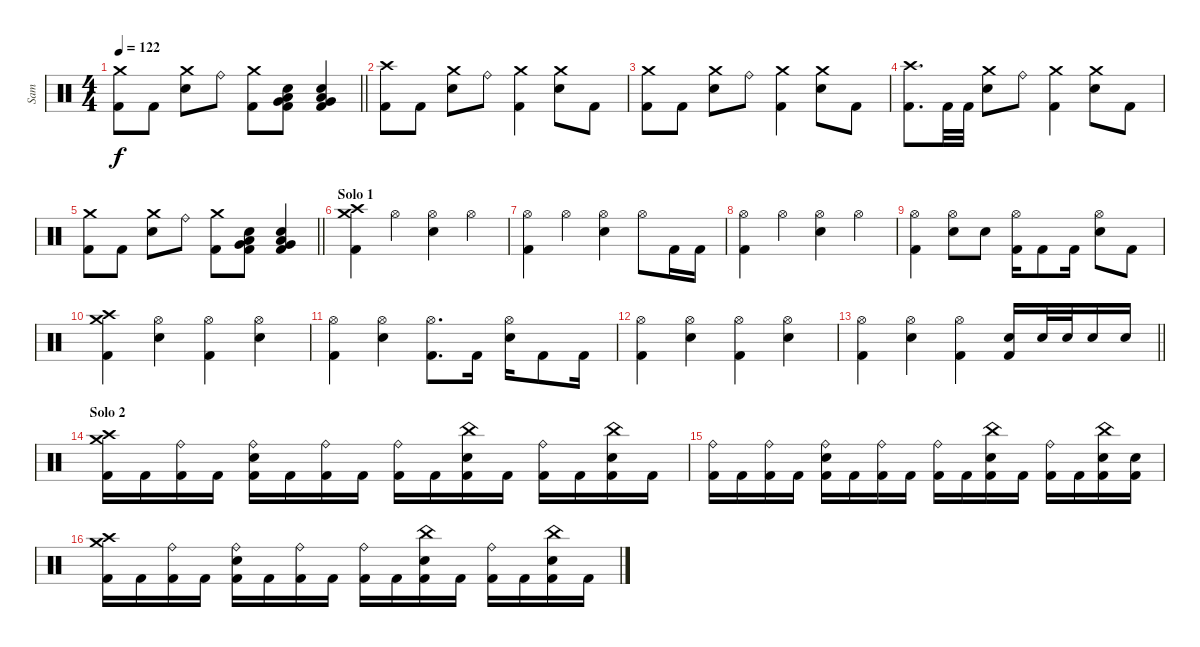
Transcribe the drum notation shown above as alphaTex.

\track ("Sam" "Sam") {solo instrument percussion}
\staff {score}
\articulation defaults
\ts (4 4)
\tempo 122
\clef neutral
\barLineRight lightlight
\ks c
("Crash medium (hit)" "Kick (hit) 2").8{dy f} "Kick (hit) 2".8 ("Crash medium (hit)" "Electric Snare (hit)").8 "Ride (bell)".8 ("Crash medium (hit)" "Kick (hit) 2").8 ("Very Low Tom (hit)" "Low Floor Tom (hit)" "Electric Snare (hit)" "Kick (hit) 2").8 ("Very Low Tom (hit)" "Low Floor Tom (hit)" "Electric Snare (hit)" "Kick (hit) 2").4 |
\section ("" " ")
("Crash high (hit)" "Kick (hit) 2").8 "Kick (hit) 2".8 ("Crash medium (hit)" "Electric Snare (hit)").8 "Ride (bell)".8 ("Crash medium (hit)" "Kick (hit) 2").4 ("Crash medium (hit)" "Electric Snare (hit)").8 "Kick (hit) 2".8 |
("Crash medium (hit)" "Kick (hit) 2").8 "Kick (hit) 2".8 ("Crash medium (hit)" "Electric Snare (hit)").8 "Ride (bell)".8 ("Crash medium (hit)" "Kick (hit) 2").4 ("Crash medium (hit)" "Electric Snare (hit)").8 "Kick (hit) 2".8 |
("Crash high (hit)" "Kick (hit) 2").8{d} "Kick (hit) 2".32 "Kick (hit) 2".32 ("Crash medium (hit)" "Electric Snare (hit)").8 "Ride (bell)".8 ("Crash medium (hit)" "Kick (hit) 2").4 ("Crash medium (hit)" "Electric Snare (hit)").8 "Kick (hit) 2".8 |
\barLineRight lightlight
("Crash medium (hit)" "Kick (hit) 2").8 "Kick (hit) 2".8 ("Crash medium (hit)" "Electric Snare (hit)").8 "Ride (bell)".8 ("Crash medium (hit)" "Kick (hit) 2").8 ("Very Low Tom (hit)" "Low Floor Tom (hit)" "Electric Snare (hit)" "Kick (hit) 2").8 ("Very Low Tom (hit)" "Low Floor Tom (hit)" "Electric Snare (hit)" "Kick (hit) 2").4 |
\section ("" "Solo 1")
("Crash high (hit)" "Crash medium (hit)" "Kick (hit) 2").4 "Hi-Hat (open)".4 ("Hi-Hat (open)" "Electric Snare (hit)").4 "Hi-Hat (open)".4 |
("Hi-Hat (open)" "Kick (hit) 2").4 "Hi-Hat (open)".4 ("Hi-Hat (open)" "Electric Snare (hit)").4 "Hi-Hat (open)".8 "Kick (hit) 2".16 "Kick (hit) 2".16 |
("Hi-Hat (open)" "Kick (hit) 2").4 "Hi-Hat (open)".4 ("Hi-Hat (open)" "Electric Snare (hit)").4 "Hi-Hat (open)".4 |
("Hi-Hat (open)" "Kick (hit) 2").4 ("Hi-Hat (open)" "Electric Snare (hit)").8 "Electric Snare (hit)".8 ("Hi-Hat (open)" "Kick (hit) 2").16 "Kick (hit) 2".8 "Kick (hit) 2".16 ("Hi-Hat (open)" "Electric Snare (hit)").8 "Kick (hit) 2".8 |
("Crash high (hit)" "Crash medium (hit)" "Kick (hit) 2").4 ("Hi-Hat (open)" "Electric Snare (hit)").4 ("Hi-Hat (open)" "Kick (hit) 2").4 ("Hi-Hat (open)" "Electric Snare (hit)").4 |
("Hi-Hat (open)" "Kick (hit) 2").4 ("Hi-Hat (open)" "Electric Snare (hit)").4 ("Hi-Hat (open)" "Kick (hit) 2").8{d} "Kick (hit) 2".16 ("Hi-Hat (open)" "Electric Snare (hit)").16 "Kick (hit) 2".8 "Kick (hit) 2".16 |
("Hi-Hat (open)" "Kick (hit) 2").4 ("Hi-Hat (open)" "Electric Snare (hit)").4 ("Hi-Hat (open)" "Kick (hit) 2").4 ("Hi-Hat (open)" "Electric Snare (hit)").4 |
\barLineRight lightlight
("Hi-Hat (open)" "Kick (hit) 2").4 ("Hi-Hat (open)" "Electric Snare (hit)").4{beam merge} ("Hi-Hat (open)" "Kick (hit) 2").4 ("Electric Snare (hit)" "Kick (hit) 2").16 "Electric Snare (hit)".32 "Electric Snare (hit)".32 "Electric Snare (hit)".16 "Electric Snare (hit)".16 |
\section ("" "Solo 2")
("Crash high (hit)" "Crash medium (hit)" "Kick (hit) 2").16 "Kick (hit) 2".16 ("Ride (bell)" "Kick (hit) 2").16 "Kick (hit) 2".16 ("Ride (bell)" "Electric Snare (hit)" "Kick (hit) 2").16 "Kick (hit) 2".16 ("Ride (bell)" "Kick (hit) 2").16 "Kick (hit) 2".16 ("Ride (bell)" "Kick (hit) 2").16 "Kick (hit) 2".16 ("China (hit)" "Electric Snare (hit)" "Kick (hit) 2").16 "Kick (hit) 2".16 ("Ride (bell)" "Kick (hit) 2").16 "Kick (hit) 2".16 ("China (hit)" "Electric Snare (hit)" "Kick (hit) 2").16 "Kick (hit) 2".16 |
("Ride (bell)" "Kick (hit) 2").16 "Kick (hit) 2".16 ("Ride (bell)" "Kick (hit) 2").16 "Kick (hit) 2".16 ("Ride (bell)" "Electric Snare (hit)" "Kick (hit) 2").16 "Kick (hit) 2".16 ("Ride (bell)" "Kick (hit) 2").16 "Kick (hit) 2".16 ("Ride (bell)" "Kick (hit) 2").16 "Kick (hit) 2".16 ("China (hit)" "Electric Snare (hit)" "Kick (hit) 2").16 "Kick (hit) 2".16 ("Ride (bell)" "Kick (hit) 2").16 "Kick (hit) 2".16 ("China (hit)" "Electric Snare (hit)" "Kick (hit) 2").16 ("Electric Snare (hit)" "Kick (hit) 2").16 |
("Crash high (hit)" "Crash medium (hit)" "Kick (hit) 2").16 "Kick (hit) 2".16 ("Ride (bell)" "Kick (hit) 2").16 "Kick (hit) 2".16 ("Ride (bell)" "Electric Snare (hit)" "Kick (hit) 2").16 "Kick (hit) 2".16 ("Ride (bell)" "Kick (hit) 2").16 "Kick (hit) 2".16 ("Ride (bell)" "Kick (hit) 2").16 "Kick (hit) 2".16 ("China (hit)" "Electric Snare (hit)" "Kick (hit) 2").16 "Kick (hit) 2".16 ("Ride (bell)" "Kick (hit) 2").16 "Kick (hit) 2".16 ("China (hit)" "Electric Snare (hit)" "Kick (hit) 2").16 "Kick (hit) 2".16
